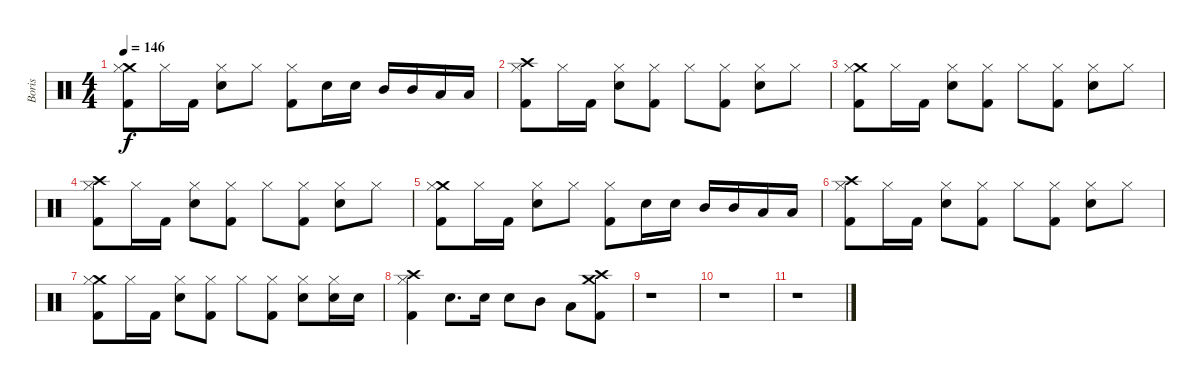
\track ("Boris" "Boris") {instrument percussion}
\staff {score}
\articulation defaults
\ts (4 4)
\tempo 146
\clef neutral
\ks c
("Kick (hit) 2" "Crash medium (hit)" "Hi-Hat (closed)").8{dy f} "Hi-Hat (closed)".16 "Kick (hit) 2".16 ("Electric Snare (hit)" "Hi-Hat (closed)").8 "Hi-Hat (closed)".8 ("Kick (hit) 2" "Hi-Hat (closed)").8 "Electric Snare (hit)".16 "Electric Snare (hit)".16 "Mid Tom (hit)".16 "Mid Tom (hit)".16 "Low Tom (hit)".16 "Low Tom (hit)".16 |
("Kick (hit) 2" "Crash high (hit)" "Hi-Hat (closed)").8 "Hi-Hat (closed)".16 "Kick (hit) 2".16 ("Electric Snare (hit)" "Hi-Hat (closed)").8 ("Kick (hit) 2" "Hi-Hat (closed)").8 "Hi-Hat (closed)".8 ("Kick (hit) 2" "Hi-Hat (closed)").8 ("Electric Snare (hit)" "Hi-Hat (closed)").8 "Hi-Hat (closed)".8 |
("Kick (hit) 2" "Crash medium (hit)" "Hi-Hat (closed)").8 "Hi-Hat (closed)".16 "Kick (hit) 2".16 ("Electric Snare (hit)" "Hi-Hat (closed)").8 ("Kick (hit) 2" "Hi-Hat (closed)").8 "Hi-Hat (closed)".8 ("Kick (hit) 2" "Hi-Hat (closed)").8 ("Electric Snare (hit)" "Hi-Hat (closed)").8 "Hi-Hat (closed)".8 |
("Kick (hit) 2" "Crash high (hit)" "Hi-Hat (closed)").8 "Hi-Hat (closed)".16 "Kick (hit) 2".16 ("Electric Snare (hit)" "Hi-Hat (closed)").8 ("Kick (hit) 2" "Hi-Hat (closed)").8 "Hi-Hat (closed)".8 ("Kick (hit) 2" "Hi-Hat (closed)").8 ("Electric Snare (hit)" "Hi-Hat (closed)").8 "Hi-Hat (closed)".8 |
("Kick (hit) 2" "Crash medium (hit)" "Hi-Hat (closed)").8 "Hi-Hat (closed)".16 "Kick (hit) 2".16 ("Electric Snare (hit)" "Hi-Hat (closed)").8 "Hi-Hat (closed)".8 ("Kick (hit) 2" "Hi-Hat (closed)").8 "Electric Snare (hit)".16 "Electric Snare (hit)".16 "Mid Tom (hit)".16 "Mid Tom (hit)".16 "Low Tom (hit)".16 "Low Tom (hit)".16 |
("Kick (hit) 2" "Crash high (hit)" "Hi-Hat (closed)").8 "Hi-Hat (closed)".16 "Kick (hit) 2".16 ("Electric Snare (hit)" "Hi-Hat (closed)").8 ("Kick (hit) 2" "Hi-Hat (closed)").8 "Hi-Hat (closed)".8 ("Kick (hit) 2" "Hi-Hat (closed)").8 ("Electric Snare (hit)" "Hi-Hat (closed)").8 "Hi-Hat (closed)".8 |
("Kick (hit) 2" "Crash medium (hit)" "Hi-Hat (closed)").8 "Hi-Hat (closed)".16 "Kick (hit) 2".16 ("Electric Snare (hit)" "Hi-Hat (closed)").8 ("Kick (hit) 2" "Hi-Hat (closed)").8 "Hi-Hat (closed)".8 ("Kick (hit) 2" "Hi-Hat (closed)").8 ("Electric Snare (hit)" "Hi-Hat (closed)").8 ("Electric Snare (hit)" "Hi-Hat (closed)").16 "Electric Snare (hit)".16 |
("Kick (hit) 2" "Crash high (hit)" "Hi-Hat (closed)").4 "Electric Snare (hit)".8{d} "Electric Snare (hit)".16 "Electric Snare (hit)".8 "Mid Tom (hit)".8 "Low Tom (hit)".8 ("Kick (hit) 2" "Crash high (hit)" "Crash medium (hit)").8 |
r.1 |
r.1 |
r.1
